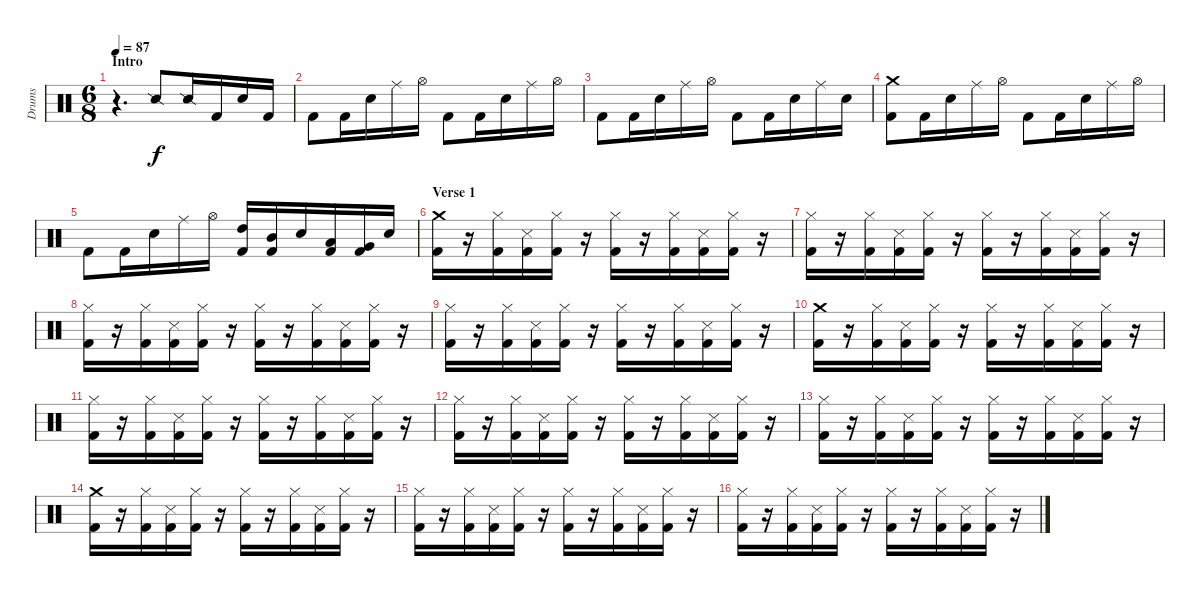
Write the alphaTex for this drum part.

\track ("Drums" "Drums") {instrument percussion}
\staff {score}
\articulation defaults
\ts (6 8)
\section ("" "Intro")
\tempo 87
\clef neutral
\ks c
r.4{d dy f} "Snare (side stick) 2".8 "Snare (side stick) 2".16 "Kick (hit) 2".16 "Snare (hit) 2".16 "Kick (hit) 2".16 |
"Kick (hit) 2".8 "Kick (hit) 2".16 "Snare (hit) 2".16 "Ride (middle)".16 "Hi-Hat (open)".16 "Kick (hit) 2".8 "Kick (hit) 2".16 "Snare (hit) 2".16 "Ride (middle)".16 "Hi-Hat (open)".16 |
"Kick (hit) 2".8 "Kick (hit) 2".16 "Snare (hit) 2".16 "Ride (middle)".16 "Hi-Hat (open)".16 "Kick (hit) 2".8 "Kick (hit) 2".16 "Snare (hit) 2".16 "Ride (middle)".16 "Snare (hit) 2".16 |
("Crash medium (hit)" "Kick (hit) 2").8 "Kick (hit) 2".16 "Snare (hit) 2".16 "Ride (middle)".16 "Hi-Hat (open)".16 "Kick (hit) 2".8 "Kick (hit) 2".16 "Snare (hit) 2".16 "Ride (middle)".16 "Hi-Hat (open)".16 |
"Kick (hit) 2".8 "Kick (hit) 2".16 "Snare (hit) 2".16 "Ride (middle)".16 "Hi-Hat (open)".16 ("High Tom (hit)" "Kick (hit) 2").16 ("Mid Tom (hit)" "Kick (hit) 2").16 "Snare (hit) 2".16 ("Low Tom (hit)" "Kick (hit) 2").16 ("Very Low Tom (hit)" "Kick (hit) 2").16 "Snare (hit) 2".16 |
\section ("" "Verse 1")
("Crash medium (hit)" "Kick (hit) 2").16 r.16 ("Hi-Hat (closed)" "Kick (hit) 2").16 ("Snare (side stick) 3" "Kick (hit) 2").16 ("Hi-Hat (closed)" "Kick (hit) 2").16 r.16 ("Hi-Hat (closed)" "Kick (hit) 2").16 r.16 ("Hi-Hat (closed)" "Kick (hit) 2").16 ("Snare (side stick) 3" "Kick (hit) 2").16 ("Hi-Hat (closed)" "Kick (hit) 2").16 r.16 |
("Hi-Hat (closed)" "Kick (hit) 2").16 r.16 ("Hi-Hat (closed)" "Kick (hit) 2").16 ("Snare (side stick) 3" "Kick (hit) 2").16 ("Hi-Hat (closed)" "Kick (hit) 2").16 r.16 ("Hi-Hat (closed)" "Kick (hit) 2").16 r.16 ("Hi-Hat (closed)" "Kick (hit) 2").16 ("Snare (side stick) 3" "Kick (hit) 2").16 ("Hi-Hat (closed)" "Kick (hit) 2").16 r.16 |
("Hi-Hat (closed)" "Kick (hit) 2").16 r.16 ("Hi-Hat (closed)" "Kick (hit) 2").16 ("Snare (side stick) 3" "Kick (hit) 2").16 ("Hi-Hat (closed)" "Kick (hit) 2").16 r.16 ("Hi-Hat (closed)" "Kick (hit) 2").16 r.16 ("Hi-Hat (closed)" "Kick (hit) 2").16 ("Snare (side stick) 3" "Kick (hit) 2").16 ("Hi-Hat (closed)" "Kick (hit) 2").16 r.16 |
("Hi-Hat (closed)" "Kick (hit) 2").16 r.16 ("Hi-Hat (closed)" "Kick (hit) 2").16 ("Snare (side stick) 3" "Kick (hit) 2").16 ("Hi-Hat (closed)" "Kick (hit) 2").16 r.16 ("Hi-Hat (closed)" "Kick (hit) 2").16 r.16 ("Hi-Hat (closed)" "Kick (hit) 2").16 ("Snare (side stick) 3" "Kick (hit) 2").16 ("Hi-Hat (closed)" "Kick (hit) 2").16 r.16 |
("Crash medium (hit)" "Kick (hit) 2").16 r.16 ("Hi-Hat (closed)" "Kick (hit) 2").16 ("Snare (side stick) 3" "Kick (hit) 2").16 ("Hi-Hat (closed)" "Kick (hit) 2").16 r.16 ("Hi-Hat (closed)" "Kick (hit) 2").16 r.16 ("Hi-Hat (closed)" "Kick (hit) 2").16 ("Snare (side stick) 3" "Kick (hit) 2").16 ("Hi-Hat (closed)" "Kick (hit) 2").16 r.16 |
("Hi-Hat (closed)" "Kick (hit) 2").16 r.16 ("Hi-Hat (closed)" "Kick (hit) 2").16 ("Snare (side stick) 3" "Kick (hit) 2").16 ("Hi-Hat (closed)" "Kick (hit) 2").16 r.16 ("Hi-Hat (closed)" "Kick (hit) 2").16 r.16 ("Hi-Hat (closed)" "Kick (hit) 2").16 ("Snare (side stick) 3" "Kick (hit) 2").16 ("Hi-Hat (closed)" "Kick (hit) 2").16 r.16 |
("Hi-Hat (closed)" "Kick (hit) 2").16 r.16 ("Hi-Hat (closed)" "Kick (hit) 2").16 ("Snare (side stick) 3" "Kick (hit) 2").16 ("Hi-Hat (closed)" "Kick (hit) 2").16 r.16 ("Hi-Hat (closed)" "Kick (hit) 2").16 r.16 ("Hi-Hat (closed)" "Kick (hit) 2").16 ("Snare (side stick) 3" "Kick (hit) 2").16 ("Hi-Hat (closed)" "Kick (hit) 2").16 r.16 |
("Hi-Hat (closed)" "Kick (hit) 2").16 r.16 ("Hi-Hat (closed)" "Kick (hit) 2").16 ("Snare (side stick) 3" "Kick (hit) 2").16 ("Hi-Hat (closed)" "Kick (hit) 2").16 r.16 ("Hi-Hat (closed)" "Kick (hit) 2").16 r.16 ("Hi-Hat (closed)" "Kick (hit) 2").16 ("Snare (side stick) 3" "Kick (hit) 2").16 ("Hi-Hat (closed)" "Kick (hit) 2").16 r.16 |
("Crash medium (hit)" "Kick (hit) 2").16 r.16 ("Hi-Hat (closed)" "Kick (hit) 2").16 ("Snare (side stick) 3" "Kick (hit) 2").16 ("Hi-Hat (closed)" "Kick (hit) 2").16 r.16 ("Hi-Hat (closed)" "Kick (hit) 2").16 r.16 ("Hi-Hat (closed)" "Kick (hit) 2").16 ("Snare (side stick) 3" "Kick (hit) 2").16 ("Hi-Hat (closed)" "Kick (hit) 2").16 r.16 |
("Hi-Hat (closed)" "Kick (hit) 2").16 r.16 ("Hi-Hat (closed)" "Kick (hit) 2").16 ("Snare (side stick) 3" "Kick (hit) 2").16 ("Hi-Hat (closed)" "Kick (hit) 2").16 r.16 ("Hi-Hat (closed)" "Kick (hit) 2").16 r.16 ("Hi-Hat (closed)" "Kick (hit) 2").16 ("Snare (side stick) 3" "Kick (hit) 2").16 ("Hi-Hat (closed)" "Kick (hit) 2").16 r.16 |
("Hi-Hat (closed)" "Kick (hit) 2").16 r.16 ("Hi-Hat (closed)" "Kick (hit) 2").16 ("Snare (side stick) 3" "Kick (hit) 2").16 ("Hi-Hat (closed)" "Kick (hit) 2").16 r.16 ("Hi-Hat (closed)" "Kick (hit) 2").16 r.16 ("Hi-Hat (closed)" "Kick (hit) 2").16 ("Snare (side stick) 3" "Kick (hit) 2").16 ("Hi-Hat (closed)" "Kick (hit) 2").16 r.16
